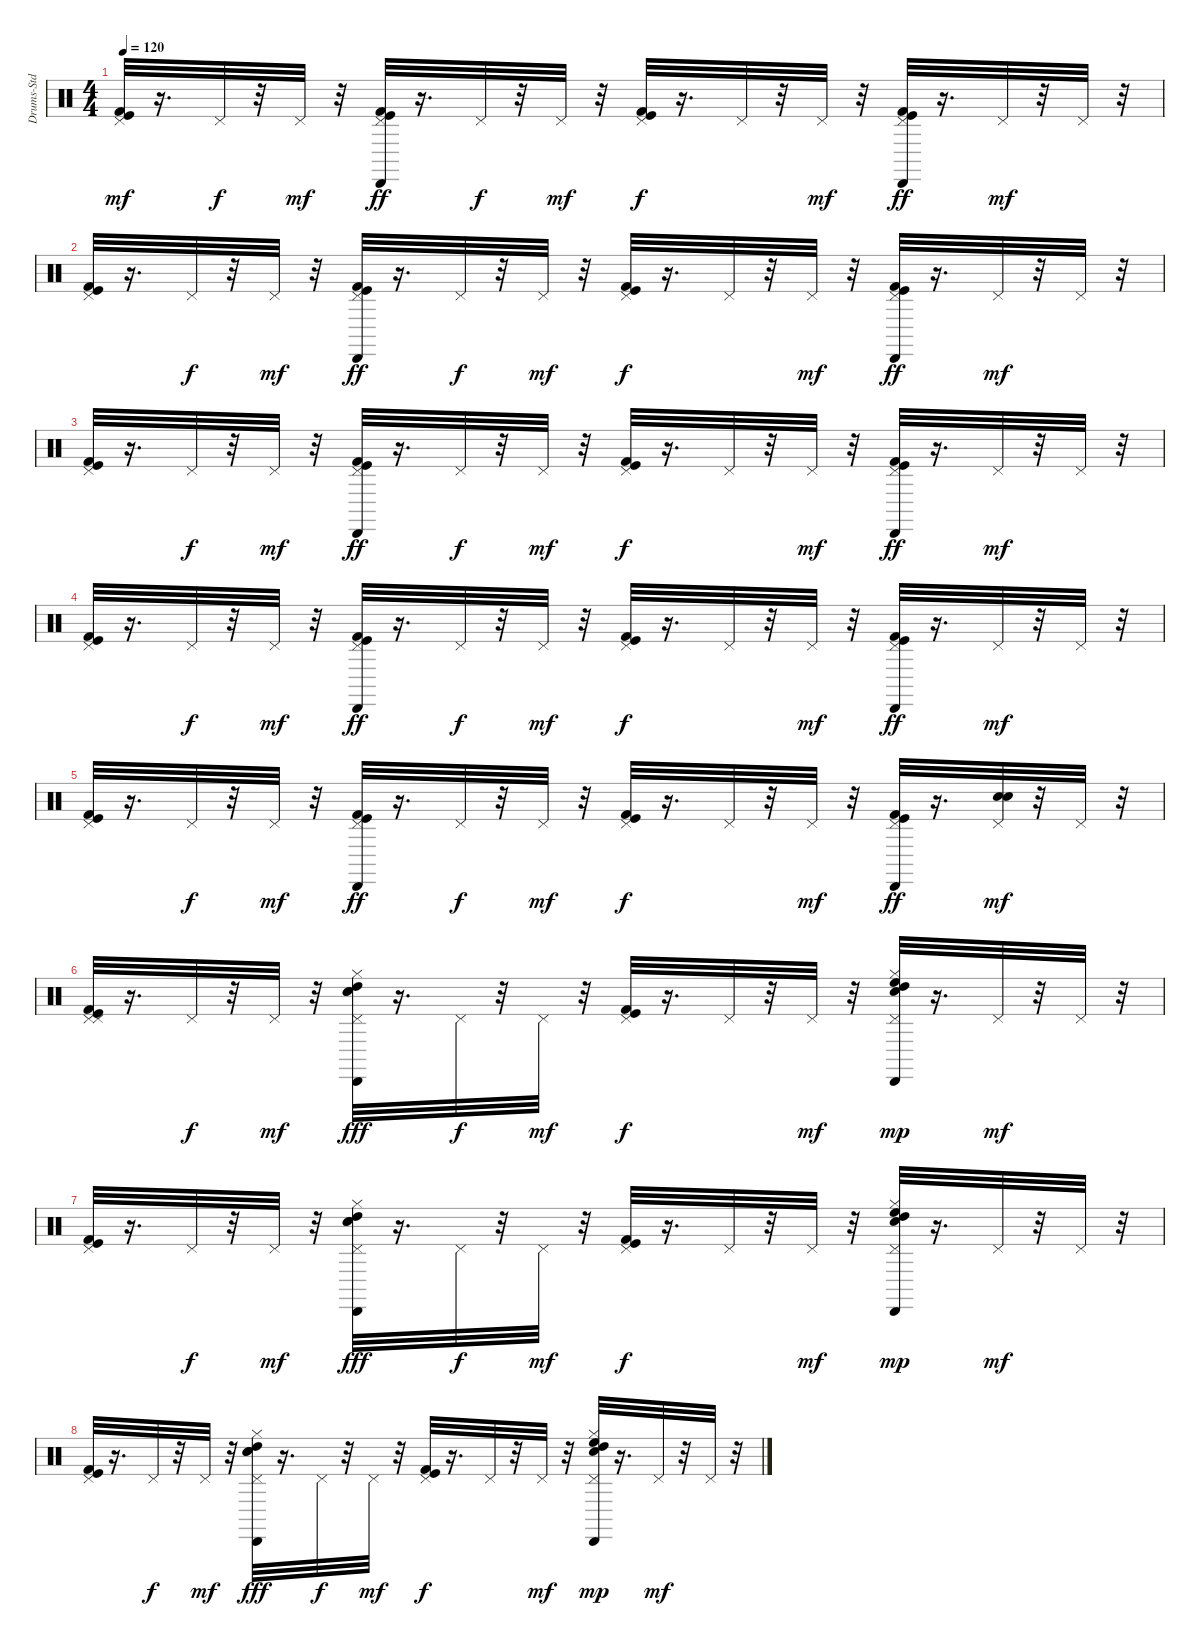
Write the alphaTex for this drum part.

\track ("Drums-Std" "Drums-Std") {instrument percussion}
\staff {score}
\articulation defaults
\ts (4 4)
\tempo 120
\clef neutral
\ks c
("Pedal Hi-Hat (hit)" "Kick (hit) 2" "Kick (hit)").32{dy mf} r.16{d} "Pedal Hi-Hat (hit)".32{dy f} r.32 "Pedal Hi-Hat (hit)".32{dy mf} r.32 ("Kick (hit) 2" "Kick (hit)" "Cabasa (hit)" "Pedal Hi-Hat (hit)").32{dy ff} r.16{d} "Pedal Hi-Hat (hit)".32{dy f} r.32 "Pedal Hi-Hat (hit)".32{dy mf} r.32 ("Pedal Hi-Hat (hit)" "Kick (hit) 2" "Kick (hit)").32{dy f} r.16{d} "Pedal Hi-Hat (hit)".32 r.32 "Pedal Hi-Hat (hit)".32{dy mf} r.32 ("Kick (hit) 2" "Kick (hit)" "Cabasa (hit)" "Pedal Hi-Hat (hit)").32{dy ff} r.16{d} "Pedal Hi-Hat (hit)".32{dy mf} r.32 "Pedal Hi-Hat (hit)".32 r.32 |
("Pedal Hi-Hat (hit)" "Kick (hit) 2" "Kick (hit)").32 r.16{d} "Pedal Hi-Hat (hit)".32{dy f} r.32 "Pedal Hi-Hat (hit)".32{dy mf} r.32 ("Kick (hit) 2" "Kick (hit)" "Cabasa (hit)" "Pedal Hi-Hat (hit)").32{dy ff} r.16{d} "Pedal Hi-Hat (hit)".32{dy f} r.32 "Pedal Hi-Hat (hit)".32{dy mf} r.32 ("Pedal Hi-Hat (hit)" "Kick (hit) 2" "Kick (hit)").32{dy f} r.16{d} "Pedal Hi-Hat (hit)".32 r.32 "Pedal Hi-Hat (hit)".32{dy mf} r.32 ("Kick (hit) 2" "Kick (hit)" "Cabasa (hit)" "Pedal Hi-Hat (hit)").32{dy ff} r.16{d} "Pedal Hi-Hat (hit)".32{dy mf} r.32 "Pedal Hi-Hat (hit)".32 r.32 |
("Pedal Hi-Hat (hit)" "Kick (hit) 2" "Kick (hit)").32 r.16{d} "Pedal Hi-Hat (hit)".32{dy f} r.32 "Pedal Hi-Hat (hit)".32{dy mf} r.32 ("Kick (hit) 2" "Kick (hit)" "Cabasa (hit)" "Pedal Hi-Hat (hit)").32{dy ff} r.16{d} "Pedal Hi-Hat (hit)".32{dy f} r.32 "Pedal Hi-Hat (hit)".32{dy mf} r.32 ("Pedal Hi-Hat (hit)" "Kick (hit) 2" "Kick (hit)").32{dy f} r.16{d} "Pedal Hi-Hat (hit)".32 r.32 "Pedal Hi-Hat (hit)".32{dy mf} r.32 ("Kick (hit) 2" "Kick (hit)" "Cabasa (hit)" "Pedal Hi-Hat (hit)").32{dy ff} r.16{d} "Pedal Hi-Hat (hit)".32{dy mf} r.32 "Pedal Hi-Hat (hit)".32 r.32 |
("Pedal Hi-Hat (hit)" "Kick (hit) 2" "Kick (hit)").32 r.16{d} "Pedal Hi-Hat (hit)".32{dy f} r.32 "Pedal Hi-Hat (hit)".32{dy mf} r.32 ("Kick (hit) 2" "Kick (hit)" "Cabasa (hit)" "Pedal Hi-Hat (hit)").32{dy ff} r.16{d} "Pedal Hi-Hat (hit)".32{dy f} r.32 "Pedal Hi-Hat (hit)".32{dy mf} r.32 ("Pedal Hi-Hat (hit)" "Kick (hit) 2" "Kick (hit)").32{dy f} r.16{d} "Pedal Hi-Hat (hit)".32 r.32 "Pedal Hi-Hat (hit)".32{dy mf} r.32 ("Kick (hit) 2" "Kick (hit)" "Cabasa (hit)" "Pedal Hi-Hat (hit)").32{dy ff} r.16{d} "Pedal Hi-Hat (hit)".32{dy mf} r.32 "Pedal Hi-Hat (hit)".32 r.32 |
("Pedal Hi-Hat (hit)" "Kick (hit) 2" "Kick (hit)").32 r.16{d} "Pedal Hi-Hat (hit)".32{dy f} r.32 "Pedal Hi-Hat (hit)".32{dy mf} r.32 ("Kick (hit) 2" "Kick (hit)" "Cabasa (hit)" "Pedal Hi-Hat (hit)").32{dy ff} r.16{d} "Pedal Hi-Hat (hit)".32{dy f} r.32 "Pedal Hi-Hat (hit)".32{dy mf} r.32 ("Pedal Hi-Hat (hit)" "Kick (hit) 2" "Kick (hit)").32{dy f} r.16{d} "Pedal Hi-Hat (hit)".32 r.32 "Pedal Hi-Hat (hit)".32{dy mf} r.32 ("Kick (hit) 2" "Kick (hit)" "Cabasa (hit)" "Pedal Hi-Hat (hit)").32{dy ff} r.16{d} ("Electric Snare (hit)" "Snare (hit) 2" "Pedal Hi-Hat (hit)").32{dy mf} r.32 "Pedal Hi-Hat (hit)".32 r.32 |
("Pedal Hi-Hat (hit)" "Kick (hit) 2" "Kick (hit)" "Pedal Hi-Hat (hit)").32 r.16{d} "Pedal Hi-Hat (hit)".32{dy f} r.32 "Pedal Hi-Hat (hit)".32{dy mf} r.32 ("Snare (hit) 2" "High Tom (hit)" "Cabasa (hit)" "Hi-Hat (closed)" "Pedal Hi-Hat (hit)" "Electric Snare (hit)").32{dy fff} r.16{d} "Pedal Hi-Hat (hit)".32{dy f} r.32 "Pedal Hi-Hat (hit)".32{dy mf} r.32 ("Pedal Hi-Hat (hit)" "Kick (hit) 2" "Kick (hit)").32{dy f} r.16{d} "Pedal Hi-Hat (hit)".32 r.32 "Pedal Hi-Hat (hit)".32{dy mf} r.32 ("Snare (hit) 2" "High Floor Tom (hit)" "High Tom (hit)" "Cabasa (hit)" "Hi-Hat (closed)" "Pedal Hi-Hat (hit)").32{dy mp} r.16{d} "Pedal Hi-Hat (hit)".32{dy mf} r.32 "Pedal Hi-Hat (hit)".32 r.32 |
("Pedal Hi-Hat (hit)" "Kick (hit) 2" "Kick (hit)").32 r.16{d} "Pedal Hi-Hat (hit)".32{dy f} r.32 "Pedal Hi-Hat (hit)".32{dy mf} r.32 ("Snare (hit) 2" "High Tom (hit)" "Cabasa (hit)" "Hi-Hat (closed)" "Pedal Hi-Hat (hit)" "Electric Snare (hit)").32{dy fff} r.16{d} "Pedal Hi-Hat (hit)".32{dy f} r.32 "Pedal Hi-Hat (hit)".32{dy mf} r.32 ("Pedal Hi-Hat (hit)" "Kick (hit) 2" "Kick (hit)").32{dy f} r.16{d} "Pedal Hi-Hat (hit)".32 r.32 "Pedal Hi-Hat (hit)".32{dy mf} r.32 ("Snare (hit) 2" "High Floor Tom (hit)" "High Tom (hit)" "Cabasa (hit)" "Hi-Hat (closed)" "Pedal Hi-Hat (hit)").32{dy mp} r.16{d} "Pedal Hi-Hat (hit)".32{dy mf} r.32 "Pedal Hi-Hat (hit)".32 r.32 |
("Pedal Hi-Hat (hit)" "Kick (hit) 2" "Kick (hit)").32 r.16{d} "Pedal Hi-Hat (hit)".32{dy f} r.32 "Pedal Hi-Hat (hit)".32{dy mf} r.32 ("Snare (hit) 2" "High Tom (hit)" "Cabasa (hit)" "Hi-Hat (closed)" "Pedal Hi-Hat (hit)" "Electric Snare (hit)").32{dy fff} r.16{d} "Pedal Hi-Hat (hit)".32{dy f} r.32 "Pedal Hi-Hat (hit)".32{dy mf} r.32 ("Pedal Hi-Hat (hit)" "Kick (hit) 2" "Kick (hit)").32{dy f} r.16{d} "Pedal Hi-Hat (hit)".32 r.32 "Pedal Hi-Hat (hit)".32{dy mf} r.32 ("Snare (hit) 2" "High Floor Tom (hit)" "High Tom (hit)" "Cabasa (hit)" "Hi-Hat (closed)" "Pedal Hi-Hat (hit)").32{dy mp} r.16{d} "Pedal Hi-Hat (hit)".32{dy mf} r.32 "Pedal Hi-Hat (hit)".32 r.32
